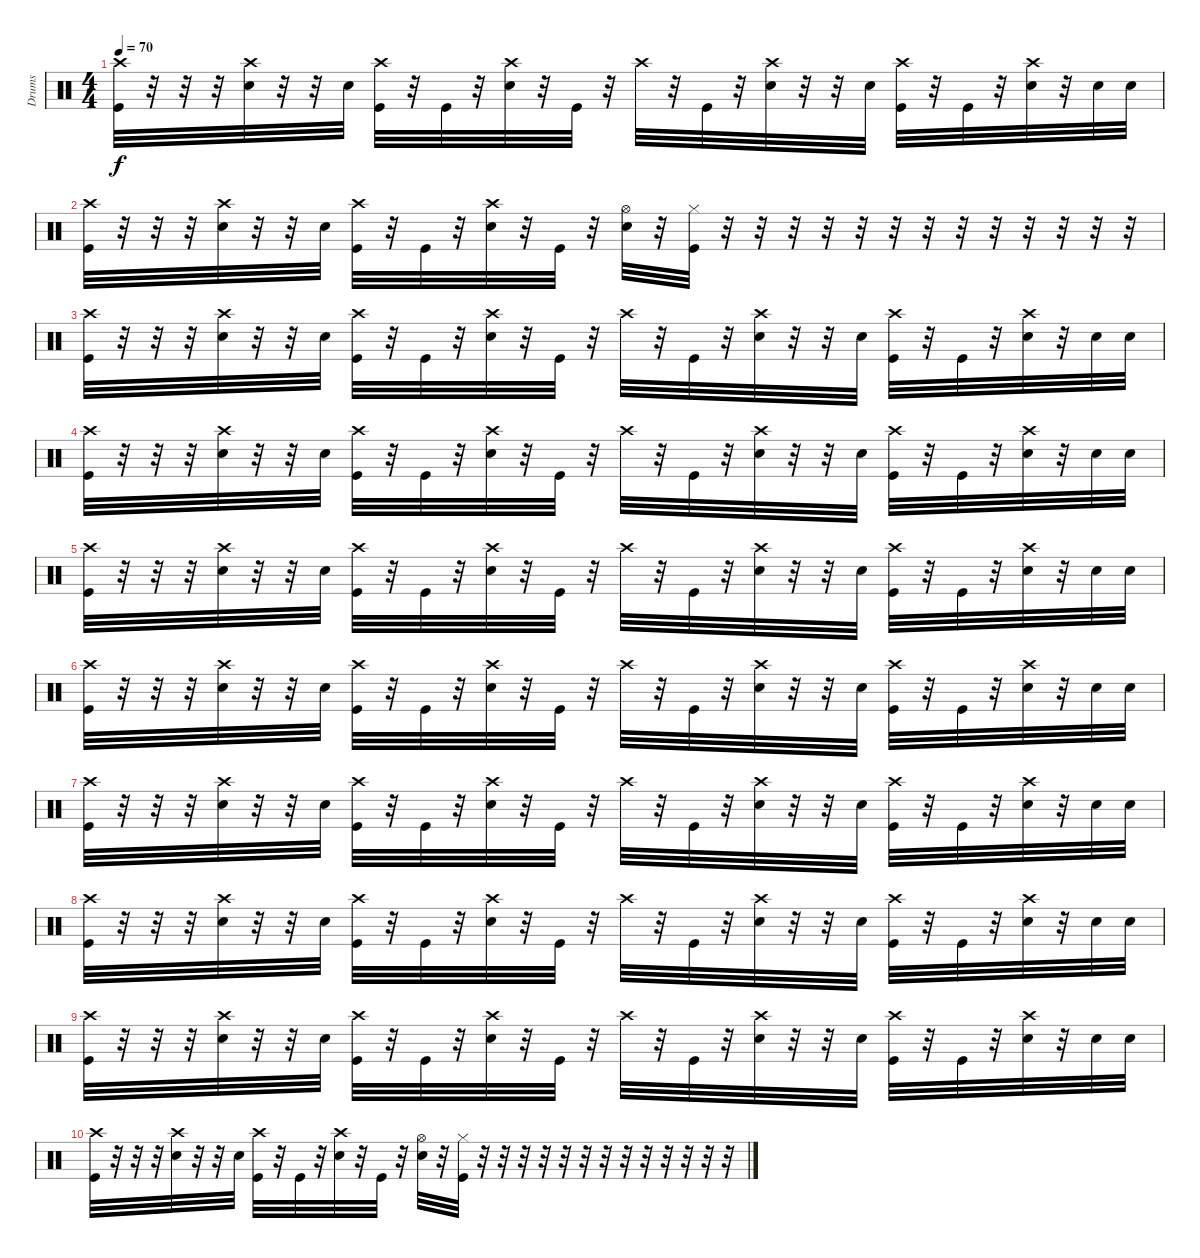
\track ("Drums" "Drums") {instrument percussion}
\staff {score}
\articulation defaults
\ts (4 4)
\tempo 70
\clef neutral
\ks c
("Crash high (hit)" "Kick (hit)").32{dy f} r.32 r.32 r.32 ("Crash high (hit)" "Electric Snare (hit)").32 r.32 r.32 "Electric Snare (hit)".32 ("Crash high (hit)" "Kick (hit)").32 r.32 "Kick (hit)".32 r.32 ("Crash high (hit)" "Electric Snare (hit)").32 r.32 "Kick (hit)".32 r.32 "Crash high (hit)".32 r.32 "Kick (hit)".32 r.32 ("Crash high (hit)" "Electric Snare (hit)").32 r.32 r.32 "Electric Snare (hit)".32 ("Crash high (hit)" "Kick (hit)").32 r.32 "Kick (hit)".32 r.32 ("Crash high (hit)" "Electric Snare (hit)").32 r.32 "Electric Snare (hit)".32 "Electric Snare (hit)".32 |
("Crash high (hit)" "Kick (hit)").32 r.32 r.32 r.32 ("Crash high (hit)" "Electric Snare (hit)").32 r.32 r.32 "Electric Snare (hit)".32 ("Crash high (hit)" "Kick (hit)").32 r.32 "Kick (hit)".32 r.32 ("Crash high (hit)" "Electric Snare (hit)").32 r.32 "Kick (hit)".32 r.32 ("Hi-Hat (open)" "Electric Snare (hit)").32 r.32 ("Hi-Hat (closed)" "Kick (hit)").32 r.32 r.32 r.32 r.32 r.32 r.32 r.32 r.32 r.32 r.32 r.32 r.32 r.32 |
("Crash high (hit)" "Kick (hit)").32 r.32 r.32 r.32 ("Crash high (hit)" "Electric Snare (hit)").32 r.32 r.32 "Electric Snare (hit)".32 ("Crash high (hit)" "Kick (hit)").32 r.32 "Kick (hit)".32 r.32 ("Crash high (hit)" "Electric Snare (hit)").32 r.32 "Kick (hit)".32 r.32 "Crash high (hit)".32 r.32 "Kick (hit)".32 r.32 ("Crash high (hit)" "Electric Snare (hit)").32 r.32 r.32 "Electric Snare (hit)".32 ("Crash high (hit)" "Kick (hit)").32 r.32 "Kick (hit)".32 r.32 ("Crash high (hit)" "Electric Snare (hit)").32 r.32 "Electric Snare (hit)".32 "Electric Snare (hit)".32 |
("Crash high (hit)" "Kick (hit)").32 r.32 r.32 r.32 ("Crash high (hit)" "Electric Snare (hit)").32 r.32 r.32 "Electric Snare (hit)".32 ("Crash high (hit)" "Kick (hit)").32 r.32 "Kick (hit)".32 r.32 ("Crash high (hit)" "Electric Snare (hit)").32 r.32 "Kick (hit)".32 r.32 "Crash high (hit)".32 r.32 "Kick (hit)".32 r.32 ("Crash high (hit)" "Electric Snare (hit)").32 r.32 r.32 "Electric Snare (hit)".32 ("Crash high (hit)" "Kick (hit)").32 r.32 "Kick (hit)".32 r.32 ("Crash high (hit)" "Electric Snare (hit)").32 r.32 "Electric Snare (hit)".32 "Electric Snare (hit)".32 |
("Crash high (hit)" "Kick (hit)").32 r.32 r.32 r.32 ("Crash high (hit)" "Electric Snare (hit)").32 r.32 r.32 "Electric Snare (hit)".32 ("Crash high (hit)" "Kick (hit)").32 r.32 "Kick (hit)".32 r.32 ("Crash high (hit)" "Electric Snare (hit)").32 r.32 "Kick (hit)".32 r.32 "Crash high (hit)".32 r.32 "Kick (hit)".32 r.32 ("Crash high (hit)" "Electric Snare (hit)").32 r.32 r.32 "Electric Snare (hit)".32 ("Crash high (hit)" "Kick (hit)").32 r.32 "Kick (hit)".32 r.32 ("Crash high (hit)" "Electric Snare (hit)").32 r.32 "Electric Snare (hit)".32 "Electric Snare (hit)".32 |
("Crash high (hit)" "Kick (hit)").32 r.32 r.32 r.32 ("Crash high (hit)" "Electric Snare (hit)").32 r.32 r.32 "Electric Snare (hit)".32 ("Crash high (hit)" "Kick (hit)").32 r.32 "Kick (hit)".32 r.32 ("Crash high (hit)" "Electric Snare (hit)").32 r.32 "Kick (hit)".32 r.32 "Crash high (hit)".32 r.32 "Kick (hit)".32 r.32 ("Crash high (hit)" "Electric Snare (hit)").32 r.32 r.32 "Electric Snare (hit)".32 ("Crash high (hit)" "Kick (hit)").32 r.32 "Kick (hit)".32 r.32 ("Crash high (hit)" "Electric Snare (hit)").32 r.32 "Electric Snare (hit)".32 "Electric Snare (hit)".32 |
("Crash high (hit)" "Kick (hit)").32 r.32 r.32 r.32 ("Crash high (hit)" "Electric Snare (hit)").32 r.32 r.32 "Electric Snare (hit)".32 ("Crash high (hit)" "Kick (hit)").32 r.32 "Kick (hit)".32 r.32 ("Crash high (hit)" "Electric Snare (hit)").32 r.32 "Kick (hit)".32 r.32 "Crash high (hit)".32 r.32 "Kick (hit)".32 r.32 ("Crash high (hit)" "Electric Snare (hit)").32 r.32 r.32 "Electric Snare (hit)".32 ("Crash high (hit)" "Kick (hit)").32 r.32 "Kick (hit)".32 r.32 ("Crash high (hit)" "Electric Snare (hit)").32 r.32 "Electric Snare (hit)".32 "Electric Snare (hit)".32 |
("Crash high (hit)" "Kick (hit)").32 r.32 r.32 r.32 ("Crash high (hit)" "Electric Snare (hit)").32 r.32 r.32 "Electric Snare (hit)".32 ("Crash high (hit)" "Kick (hit)").32 r.32 "Kick (hit)".32 r.32 ("Crash high (hit)" "Electric Snare (hit)").32 r.32 "Kick (hit)".32 r.32 "Crash high (hit)".32 r.32 "Kick (hit)".32 r.32 ("Crash high (hit)" "Electric Snare (hit)").32 r.32 r.32 "Electric Snare (hit)".32 ("Crash high (hit)" "Kick (hit)").32 r.32 "Kick (hit)".32 r.32 ("Crash high (hit)" "Electric Snare (hit)").32 r.32 "Electric Snare (hit)".32 "Electric Snare (hit)".32 |
("Crash high (hit)" "Kick (hit)").32 r.32 r.32 r.32 ("Crash high (hit)" "Electric Snare (hit)").32 r.32 r.32 "Electric Snare (hit)".32 ("Crash high (hit)" "Kick (hit)").32 r.32 "Kick (hit)".32 r.32 ("Crash high (hit)" "Electric Snare (hit)").32 r.32 "Kick (hit)".32 r.32 "Crash high (hit)".32 r.32 "Kick (hit)".32 r.32 ("Crash high (hit)" "Electric Snare (hit)").32 r.32 r.32 "Electric Snare (hit)".32 ("Crash high (hit)" "Kick (hit)").32 r.32 "Kick (hit)".32 r.32 ("Crash high (hit)" "Electric Snare (hit)").32 r.32 "Electric Snare (hit)".32 "Electric Snare (hit)".32 |
("Crash high (hit)" "Kick (hit)").32 r.32 r.32 r.32 ("Crash high (hit)" "Electric Snare (hit)").32 r.32 r.32 "Electric Snare (hit)".32 ("Crash high (hit)" "Kick (hit)").32 r.32 "Kick (hit)".32 r.32 ("Crash high (hit)" "Electric Snare (hit)").32 r.32 "Kick (hit)".32 r.32 ("Hi-Hat (open)" "Electric Snare (hit)").32 r.32 ("Hi-Hat (closed)" "Kick (hit)").32 r.32 r.32 r.32 r.32 r.32 r.32 r.32 r.32 r.32 r.32 r.32 r.32 r.32
